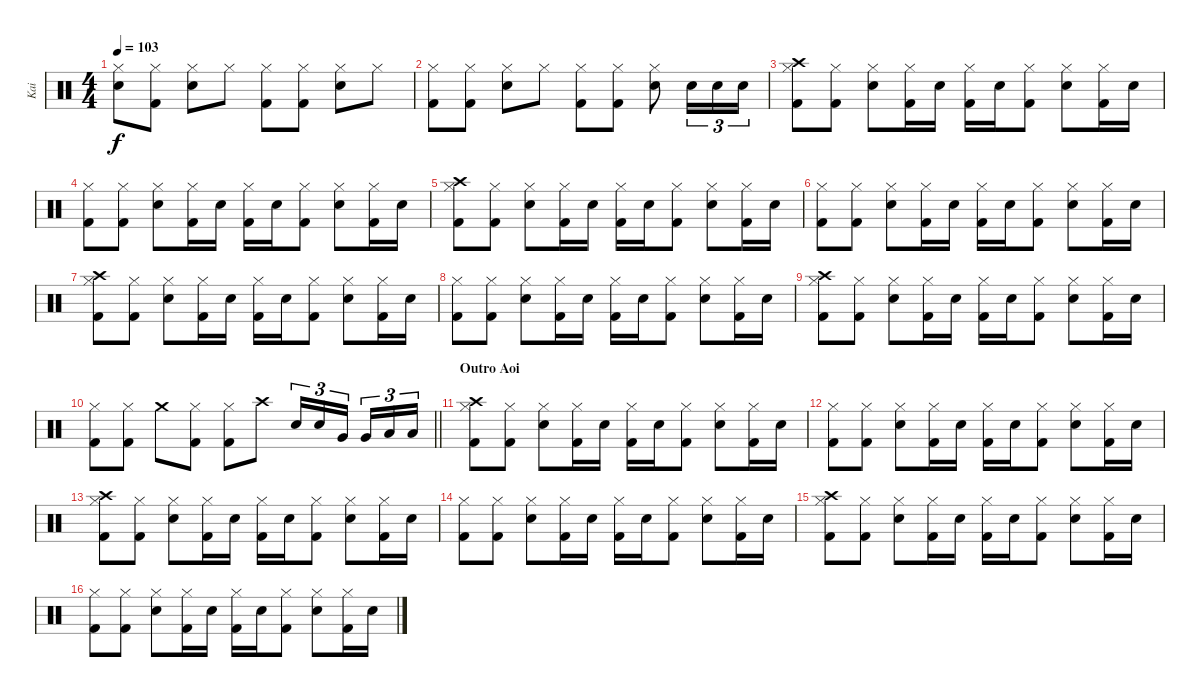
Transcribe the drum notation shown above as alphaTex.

\track ("Kai" "Kai") {instrument percussion}
\staff {score}
\articulation defaults
\ts (4 4)
\tempo 103
\clef neutral
\ks c
("Snare (hit)"{t} "Hi-Hat (closed)").8{dy f} ("Hi-Hat (closed)" "Kick (hit) 2").8 ("Hi-Hat (closed)" "Electric Snare (hit)").8 "Hi-Hat (closed)".8 ("Hi-Hat (closed)" "Kick (hit) 2").8 ("Hi-Hat (closed)" "Kick (hit) 2").8 ("Hi-Hat (closed)" "Electric Snare (hit)").8 "Hi-Hat (closed)".8 |
("Hi-Hat (closed)" "Kick (hit) 2").8 ("Hi-Hat (closed)" "Kick (hit) 2").8 ("Hi-Hat (closed)" "Electric Snare (hit)").8 "Hi-Hat (closed)".8 ("Hi-Hat (closed)" "Kick (hit) 2").8 ("Hi-Hat (closed)" "Kick (hit) 2").8 ("Hi-Hat (closed)" "Electric Snare (hit)").8 "Electric Snare (hit)".16{tu (3 2)} "Electric Snare (hit)".16{tu (3 2)} "Electric Snare (hit)".16{tu (3 2)} |
("Crash high (hit)" "Hi-Hat (closed)" "Kick (hit) 2").8 ("Hi-Hat (closed)" "Kick (hit) 2").8 ("Hi-Hat (closed)" "Electric Snare (hit)").8 ("Hi-Hat (closed)" "Kick (hit) 2").16 "Electric Snare (hit)".16 ("Hi-Hat (closed)" "Kick (hit) 2").16 "Electric Snare (hit)".16 ("Hi-Hat (closed)" "Kick (hit) 2").8 ("Hi-Hat (closed)" "Electric Snare (hit)").8 ("Hi-Hat (closed)" "Kick (hit) 2").16 "Electric Snare (hit)".16 |
("Hi-Hat (closed)" "Kick (hit) 2").8 ("Hi-Hat (closed)" "Kick (hit) 2").8 ("Hi-Hat (closed)" "Electric Snare (hit)").8 ("Hi-Hat (closed)" "Kick (hit) 2").16 "Electric Snare (hit)".16 ("Hi-Hat (closed)" "Kick (hit) 2").16 "Electric Snare (hit)".16 ("Hi-Hat (closed)" "Kick (hit) 2").8 ("Hi-Hat (closed)" "Electric Snare (hit)").8 ("Hi-Hat (closed)" "Kick (hit) 2").16 "Electric Snare (hit)".16 |
("Crash high (hit)" "Hi-Hat (closed)" "Kick (hit) 2").8 ("Hi-Hat (closed)" "Kick (hit) 2").8 ("Hi-Hat (closed)" "Electric Snare (hit)").8 ("Hi-Hat (closed)" "Kick (hit) 2").16 "Electric Snare (hit)".16 ("Hi-Hat (closed)" "Kick (hit) 2").16 "Electric Snare (hit)".16 ("Hi-Hat (closed)" "Kick (hit) 2").8 ("Hi-Hat (closed)" "Electric Snare (hit)").8 ("Hi-Hat (closed)" "Kick (hit) 2").16 "Electric Snare (hit)".16 |
("Hi-Hat (closed)" "Kick (hit) 2").8 ("Hi-Hat (closed)" "Kick (hit) 2").8 ("Hi-Hat (closed)" "Electric Snare (hit)").8 ("Hi-Hat (closed)" "Kick (hit) 2").16 "Electric Snare (hit)".16 ("Hi-Hat (closed)" "Kick (hit) 2").16 "Electric Snare (hit)".16 ("Hi-Hat (closed)" "Kick (hit) 2").8 ("Hi-Hat (closed)" "Electric Snare (hit)").8 ("Hi-Hat (closed)" "Kick (hit) 2").16 "Electric Snare (hit)".16 |
("Crash high (hit)" "Hi-Hat (closed)" "Kick (hit) 2").8 ("Hi-Hat (closed)" "Kick (hit) 2").8 ("Hi-Hat (closed)" "Electric Snare (hit)").8 ("Hi-Hat (closed)" "Kick (hit) 2").16 "Electric Snare (hit)".16 ("Hi-Hat (closed)" "Kick (hit) 2").16 "Electric Snare (hit)".16 ("Hi-Hat (closed)" "Kick (hit) 2").8 ("Hi-Hat (closed)" "Electric Snare (hit)").8 ("Hi-Hat (closed)" "Kick (hit) 2").16 "Electric Snare (hit)".16 |
("Hi-Hat (closed)" "Kick (hit) 2").8 ("Hi-Hat (closed)" "Kick (hit) 2").8 ("Hi-Hat (closed)" "Electric Snare (hit)").8 ("Hi-Hat (closed)" "Kick (hit) 2").16 "Electric Snare (hit)".16 ("Hi-Hat (closed)" "Kick (hit) 2").16 "Electric Snare (hit)".16 ("Hi-Hat (closed)" "Kick (hit) 2").8 ("Hi-Hat (closed)" "Electric Snare (hit)").8 ("Hi-Hat (closed)" "Kick (hit) 2").16 "Electric Snare (hit)".16 |
("Crash high (hit)" "Hi-Hat (closed)" "Kick (hit) 2").8 ("Hi-Hat (closed)" "Kick (hit) 2").8 ("Hi-Hat (closed)" "Electric Snare (hit)").8 ("Hi-Hat (closed)" "Kick (hit) 2").16 "Electric Snare (hit)".16 ("Hi-Hat (closed)" "Kick (hit) 2").16 "Electric Snare (hit)".16 ("Hi-Hat (closed)" "Kick (hit) 2").8 ("Hi-Hat (closed)" "Electric Snare (hit)").8 ("Hi-Hat (closed)" "Kick (hit) 2").16 "Electric Snare (hit)".16 |
\barLineRight lightlight
("Hi-Hat (closed)" "Kick (hit) 2").8 ("Hi-Hat (closed)" "Kick (hit) 2").8 "Crash medium (hit)".8 ("Hi-Hat (closed)" "Kick (hit) 2").8 ("Hi-Hat (closed)" "Kick (hit) 2").8 "Crash high (hit)".8 "Snare (hit) 2".16{tu (3 2)} "Snare (hit) 2".16{tu (3 2)} "Very Low Tom (hit)".16{tu (3 2) beam splitsecondary} "Very Low Tom (hit)".16{tu (3 2)} "Low Floor Tom (hit)".16{tu (3 2)} "Low Floor Tom (hit)".16{tu (3 2)} |
\section ("" "Outro Aoi")
("Crash high (hit)" "Hi-Hat (closed)" "Kick (hit) 2").8 ("Hi-Hat (closed)" "Kick (hit) 2").8 ("Hi-Hat (closed)" "Electric Snare (hit)").8 ("Hi-Hat (closed)" "Kick (hit) 2").16 "Electric Snare (hit)".16 ("Hi-Hat (closed)" "Kick (hit) 2").16 "Electric Snare (hit)".16 ("Hi-Hat (closed)" "Kick (hit) 2").8 ("Hi-Hat (closed)" "Electric Snare (hit)").8 ("Hi-Hat (closed)" "Kick (hit) 2").16 "Electric Snare (hit)".16 |
("Hi-Hat (closed)" "Kick (hit) 2").8 ("Hi-Hat (closed)" "Kick (hit) 2").8 ("Hi-Hat (closed)" "Electric Snare (hit)").8 ("Hi-Hat (closed)" "Kick (hit) 2").16 "Electric Snare (hit)".16 ("Hi-Hat (closed)" "Kick (hit) 2").16 "Electric Snare (hit)".16 ("Hi-Hat (closed)" "Kick (hit) 2").8 ("Hi-Hat (closed)" "Electric Snare (hit)").8 ("Hi-Hat (closed)" "Kick (hit) 2").16 "Electric Snare (hit)".16 |
("Crash high (hit)" "Hi-Hat (closed)" "Kick (hit) 2").8 ("Hi-Hat (closed)" "Kick (hit) 2").8 ("Hi-Hat (closed)" "Electric Snare (hit)").8 ("Hi-Hat (closed)" "Kick (hit) 2").16 "Electric Snare (hit)".16 ("Hi-Hat (closed)" "Kick (hit) 2").16 "Electric Snare (hit)".16 ("Hi-Hat (closed)" "Kick (hit) 2").8 ("Hi-Hat (closed)" "Electric Snare (hit)").8 ("Hi-Hat (closed)" "Kick (hit) 2").16 "Electric Snare (hit)".16 |
("Hi-Hat (closed)" "Kick (hit) 2").8 ("Hi-Hat (closed)" "Kick (hit) 2").8 ("Hi-Hat (closed)" "Electric Snare (hit)").8 ("Hi-Hat (closed)" "Kick (hit) 2").16 "Electric Snare (hit)".16 ("Hi-Hat (closed)" "Kick (hit) 2").16 "Electric Snare (hit)".16 ("Hi-Hat (closed)" "Kick (hit) 2").8 ("Hi-Hat (closed)" "Electric Snare (hit)").8 ("Hi-Hat (closed)" "Kick (hit) 2").16 "Electric Snare (hit)".16 |
("Crash high (hit)" "Hi-Hat (closed)" "Kick (hit) 2").8 ("Hi-Hat (closed)" "Kick (hit) 2").8 ("Hi-Hat (closed)" "Electric Snare (hit)").8 ("Hi-Hat (closed)" "Kick (hit) 2").16 "Electric Snare (hit)".16 ("Hi-Hat (closed)" "Kick (hit) 2").16 "Electric Snare (hit)".16 ("Hi-Hat (closed)" "Kick (hit) 2").8 ("Hi-Hat (closed)" "Electric Snare (hit)").8 ("Hi-Hat (closed)" "Kick (hit) 2").16 "Electric Snare (hit)".16 |
("Hi-Hat (closed)" "Kick (hit) 2").8 ("Hi-Hat (closed)" "Kick (hit) 2").8 ("Hi-Hat (closed)" "Electric Snare (hit)").8 ("Hi-Hat (closed)" "Kick (hit) 2").16 "Electric Snare (hit)".16 ("Hi-Hat (closed)" "Kick (hit) 2").16 "Electric Snare (hit)".16 ("Hi-Hat (closed)" "Kick (hit) 2").8 ("Hi-Hat (closed)" "Electric Snare (hit)").8 ("Hi-Hat (closed)" "Kick (hit) 2").16 "Electric Snare (hit)".16
